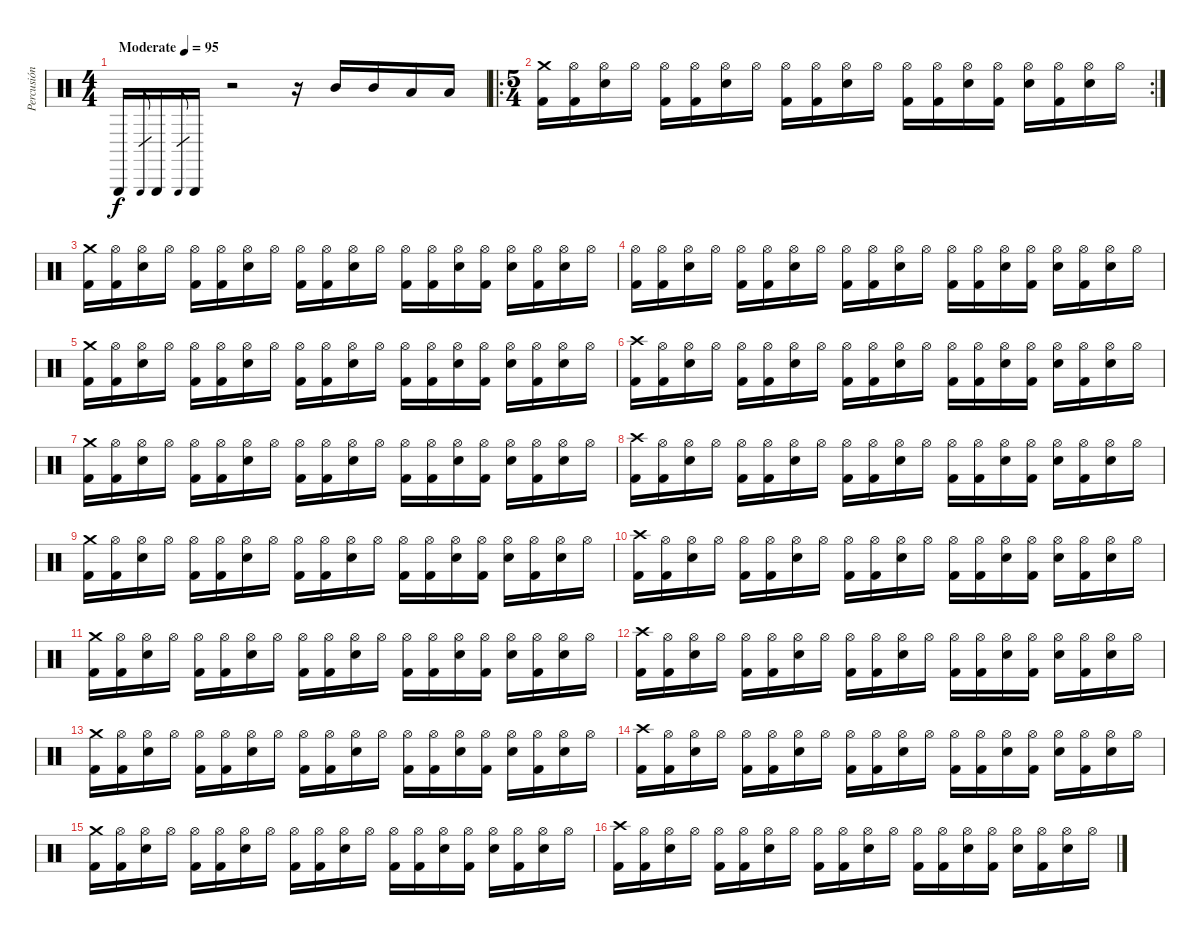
\track ("Percusión" "Percusión") {instrument percussion}
\staff {score}
\articulation defaults
\ts (4 4)
\tempo (95 "Moderate")
\clef neutral
\ks c "Triangle (hit)".16{dy f} "Triangle (hit)".8{gr} "Triangle (hit)".16 "Triangle (hit)".8{gr} "Triangle (hit)".16
r.2 r.16 "Mid Tom (hit)".16 "Mid Tom (hit)".16 "Low Tom (hit)".16 "Low Tom (hit)".16 |
\ro
\rc 2
\ts (5 4)
("Crash medium (hit)" "Kick (hit) 2").16 ("Hi-Hat (open)" "Kick (hit) 2").16 ("Hi-Hat (open)" "Electric Snare (hit)").16 "Hi-Hat (open)".16 ("Hi-Hat (open)" "Kick (hit) 2").16 ("Hi-Hat (open)" "Kick (hit) 2").16 ("Hi-Hat (open)" "Electric Snare (hit)").16 "Hi-Hat (open)".16 ("Hi-Hat (open)" "Kick (hit) 2").16 ("Hi-Hat (open)" "Kick (hit) 2").16 ("Hi-Hat (open)" "Electric Snare (hit)").16 "Hi-Hat (open)".16 ("Hi-Hat (open)" "Kick (hit) 2").16 ("Hi-Hat (open)" "Kick (hit) 2").16 ("Hi-Hat (open)" "Electric Snare (hit)").16 ("Hi-Hat (open)" "Kick (hit) 2").16 ("Hi-Hat (open)" "Electric Snare (hit)").16 ("Hi-Hat (open)" "Kick (hit) 2").16 ("Hi-Hat (open)" "Electric Snare (hit)").16 "Hi-Hat (open)".16 |
("Crash medium (hit)" "Kick (hit) 2").16 ("Hi-Hat (open)" "Kick (hit) 2").16 ("Hi-Hat (open)" "Electric Snare (hit)").16 "Hi-Hat (open)".16 ("Hi-Hat (open)" "Kick (hit) 2").16 ("Hi-Hat (open)" "Kick (hit) 2").16 ("Hi-Hat (open)" "Electric Snare (hit)").16 "Hi-Hat (open)".16 ("Hi-Hat (open)" "Kick (hit) 2").16 ("Hi-Hat (open)" "Kick (hit) 2").16 ("Hi-Hat (open)" "Electric Snare (hit)").16 "Hi-Hat (open)".16 ("Hi-Hat (open)" "Kick (hit) 2").16 ("Hi-Hat (open)" "Kick (hit) 2").16 ("Hi-Hat (open)" "Electric Snare (hit)").16 ("Hi-Hat (open)" "Kick (hit) 2").16 ("Hi-Hat (open)" "Electric Snare (hit)").16 ("Hi-Hat (open)" "Kick (hit) 2").16 ("Hi-Hat (open)" "Electric Snare (hit)").16 "Hi-Hat (open)".16 |
("Hi-Hat (open)" "Kick (hit) 2").16 ("Hi-Hat (open)" "Kick (hit) 2").16 ("Hi-Hat (open)" "Electric Snare (hit)").16 "Hi-Hat (open)".16 ("Hi-Hat (open)" "Kick (hit) 2").16 ("Hi-Hat (open)" "Kick (hit) 2").16 ("Hi-Hat (open)" "Electric Snare (hit)").16 "Hi-Hat (open)".16 ("Hi-Hat (open)" "Kick (hit) 2").16 ("Hi-Hat (open)" "Kick (hit) 2").16 ("Hi-Hat (open)" "Electric Snare (hit)").16 "Hi-Hat (open)".16 ("Hi-Hat (open)" "Kick (hit) 2").16 ("Hi-Hat (open)" "Kick (hit) 2").16 ("Hi-Hat (open)" "Electric Snare (hit)").16 ("Hi-Hat (open)" "Kick (hit) 2").16 ("Hi-Hat (open)" "Electric Snare (hit)").16 ("Hi-Hat (open)" "Kick (hit) 2").16 ("Hi-Hat (open)" "Electric Snare (hit)").16 "Hi-Hat (open)".16 |
("Crash medium (hit)" "Kick (hit) 2").16 ("Hi-Hat (open)" "Kick (hit) 2").16 ("Hi-Hat (open)" "Electric Snare (hit)").16 "Hi-Hat (open)".16 ("Hi-Hat (open)" "Kick (hit) 2").16 ("Hi-Hat (open)" "Kick (hit) 2").16 ("Hi-Hat (open)" "Electric Snare (hit)").16 "Hi-Hat (open)".16 ("Hi-Hat (open)" "Kick (hit) 2").16 ("Hi-Hat (open)" "Kick (hit) 2").16 ("Hi-Hat (open)" "Electric Snare (hit)").16 "Hi-Hat (open)".16 ("Hi-Hat (open)" "Kick (hit) 2").16 ("Hi-Hat (open)" "Kick (hit) 2").16 ("Hi-Hat (open)" "Electric Snare (hit)").16 ("Hi-Hat (open)" "Kick (hit) 2").16 ("Hi-Hat (open)" "Electric Snare (hit)").16 ("Hi-Hat (open)" "Kick (hit) 2").16 ("Hi-Hat (open)" "Electric Snare (hit)").16 "Hi-Hat (open)".16 |
("Crash high (hit)" "Kick (hit) 2").16 ("Hi-Hat (open)" "Kick (hit) 2").16 ("Hi-Hat (open)" "Electric Snare (hit)").16 "Hi-Hat (open)".16 ("Hi-Hat (open)" "Kick (hit) 2").16 ("Hi-Hat (open)" "Kick (hit) 2").16 ("Hi-Hat (open)" "Electric Snare (hit)").16 "Hi-Hat (open)".16 ("Hi-Hat (open)" "Kick (hit) 2").16 ("Hi-Hat (open)" "Kick (hit) 2").16 ("Hi-Hat (open)" "Electric Snare (hit)").16 "Hi-Hat (open)".16 ("Hi-Hat (open)" "Kick (hit) 2").16 ("Hi-Hat (open)" "Kick (hit) 2").16 ("Hi-Hat (open)" "Electric Snare (hit)").16 ("Hi-Hat (open)" "Kick (hit) 2").16 ("Hi-Hat (open)" "Electric Snare (hit)").16 ("Hi-Hat (open)" "Kick (hit) 2").16 ("Hi-Hat (open)" "Electric Snare (hit)").16 "Hi-Hat (open)".16 |
("Crash medium (hit)" "Kick (hit) 2").16 ("Hi-Hat (open)" "Kick (hit) 2").16 ("Hi-Hat (open)" "Electric Snare (hit)").16 "Hi-Hat (open)".16 ("Hi-Hat (open)" "Kick (hit) 2").16 ("Hi-Hat (open)" "Kick (hit) 2").16 ("Hi-Hat (open)" "Electric Snare (hit)").16 "Hi-Hat (open)".16 ("Hi-Hat (open)" "Kick (hit) 2").16 ("Hi-Hat (open)" "Kick (hit) 2").16 ("Hi-Hat (open)" "Electric Snare (hit)").16 "Hi-Hat (open)".16 ("Hi-Hat (open)" "Kick (hit) 2").16 ("Hi-Hat (open)" "Kick (hit) 2").16 ("Hi-Hat (open)" "Electric Snare (hit)").16 ("Hi-Hat (open)" "Kick (hit) 2").16 ("Hi-Hat (open)" "Electric Snare (hit)").16 ("Hi-Hat (open)" "Kick (hit) 2").16 ("Hi-Hat (open)" "Electric Snare (hit)").16 "Hi-Hat (open)".16 |
("Crash high (hit)" "Kick (hit) 2").16 ("Hi-Hat (open)" "Kick (hit) 2").16 ("Hi-Hat (open)" "Electric Snare (hit)").16 "Hi-Hat (open)".16 ("Hi-Hat (open)" "Kick (hit) 2").16 ("Hi-Hat (open)" "Kick (hit) 2").16 ("Hi-Hat (open)" "Electric Snare (hit)").16 "Hi-Hat (open)".16 ("Hi-Hat (open)" "Kick (hit) 2").16 ("Hi-Hat (open)" "Kick (hit) 2").16 ("Hi-Hat (open)" "Electric Snare (hit)").16 "Hi-Hat (open)".16 ("Hi-Hat (open)" "Kick (hit) 2").16 ("Hi-Hat (open)" "Kick (hit) 2").16 ("Hi-Hat (open)" "Electric Snare (hit)").16 ("Hi-Hat (open)" "Kick (hit) 2").16 ("Hi-Hat (open)" "Electric Snare (hit)").16 ("Hi-Hat (open)" "Kick (hit) 2").16 ("Hi-Hat (open)" "Electric Snare (hit)").16 "Hi-Hat (open)".16 |
("Crash medium (hit)" "Kick (hit) 2").16 ("Hi-Hat (open)" "Kick (hit) 2").16 ("Hi-Hat (open)" "Electric Snare (hit)").16 "Hi-Hat (open)".16 ("Hi-Hat (open)" "Kick (hit) 2").16 ("Hi-Hat (open)" "Kick (hit) 2").16 ("Hi-Hat (open)" "Electric Snare (hit)").16 "Hi-Hat (open)".16 ("Hi-Hat (open)" "Kick (hit) 2").16 ("Hi-Hat (open)" "Kick (hit) 2").16 ("Hi-Hat (open)" "Electric Snare (hit)").16 "Hi-Hat (open)".16 ("Hi-Hat (open)" "Kick (hit) 2").16 ("Hi-Hat (open)" "Kick (hit) 2").16 ("Hi-Hat (open)" "Electric Snare (hit)").16 ("Hi-Hat (open)" "Kick (hit) 2").16 ("Hi-Hat (open)" "Electric Snare (hit)").16 ("Hi-Hat (open)" "Kick (hit) 2").16 ("Hi-Hat (open)" "Electric Snare (hit)").16 "Hi-Hat (open)".16 |
("Crash high (hit)" "Kick (hit) 2").16 ("Hi-Hat (open)" "Kick (hit) 2").16 ("Hi-Hat (open)" "Electric Snare (hit)").16 "Hi-Hat (open)".16 ("Hi-Hat (open)" "Kick (hit) 2").16 ("Hi-Hat (open)" "Kick (hit) 2").16 ("Hi-Hat (open)" "Electric Snare (hit)").16 "Hi-Hat (open)".16 ("Hi-Hat (open)" "Kick (hit) 2").16 ("Hi-Hat (open)" "Kick (hit) 2").16 ("Hi-Hat (open)" "Electric Snare (hit)").16 "Hi-Hat (open)".16 ("Hi-Hat (open)" "Kick (hit) 2").16 ("Hi-Hat (open)" "Kick (hit) 2").16 ("Hi-Hat (open)" "Electric Snare (hit)").16 ("Hi-Hat (open)" "Kick (hit) 2").16 ("Hi-Hat (open)" "Electric Snare (hit)").16 ("Hi-Hat (open)" "Kick (hit) 2").16 ("Hi-Hat (open)" "Electric Snare (hit)").16 "Hi-Hat (open)".16 |
("Crash medium (hit)" "Kick (hit) 2").16 ("Hi-Hat (open)" "Kick (hit) 2").16 ("Hi-Hat (open)" "Electric Snare (hit)").16 "Hi-Hat (open)".16 ("Hi-Hat (open)" "Kick (hit) 2").16 ("Hi-Hat (open)" "Kick (hit) 2").16 ("Hi-Hat (open)" "Electric Snare (hit)").16 "Hi-Hat (open)".16 ("Hi-Hat (open)" "Kick (hit) 2").16 ("Hi-Hat (open)" "Kick (hit) 2").16 ("Hi-Hat (open)" "Electric Snare (hit)").16 "Hi-Hat (open)".16 ("Hi-Hat (open)" "Kick (hit) 2").16 ("Hi-Hat (open)" "Kick (hit) 2").16 ("Hi-Hat (open)" "Electric Snare (hit)").16 ("Hi-Hat (open)" "Kick (hit) 2").16 ("Hi-Hat (open)" "Electric Snare (hit)").16 ("Hi-Hat (open)" "Kick (hit) 2").16 ("Hi-Hat (open)" "Electric Snare (hit)").16 "Hi-Hat (open)".16 |
("Crash high (hit)" "Kick (hit) 2").16 ("Hi-Hat (open)" "Kick (hit) 2").16 ("Hi-Hat (open)" "Electric Snare (hit)").16 "Hi-Hat (open)".16 ("Hi-Hat (open)" "Kick (hit) 2").16 ("Hi-Hat (open)" "Kick (hit) 2").16 ("Hi-Hat (open)" "Electric Snare (hit)").16 "Hi-Hat (open)".16 ("Hi-Hat (open)" "Kick (hit) 2").16 ("Hi-Hat (open)" "Kick (hit) 2").16 ("Hi-Hat (open)" "Electric Snare (hit)").16 "Hi-Hat (open)".16 ("Hi-Hat (open)" "Kick (hit) 2").16 ("Hi-Hat (open)" "Kick (hit) 2").16 ("Hi-Hat (open)" "Electric Snare (hit)").16 ("Hi-Hat (open)" "Kick (hit) 2").16 ("Hi-Hat (open)" "Electric Snare (hit)").16 ("Hi-Hat (open)" "Kick (hit) 2").16 ("Hi-Hat (open)" "Electric Snare (hit)").16 "Hi-Hat (open)".16 |
("Crash medium (hit)" "Kick (hit) 2").16 ("Hi-Hat (open)" "Kick (hit) 2").16 ("Hi-Hat (open)" "Electric Snare (hit)").16 "Hi-Hat (open)".16 ("Hi-Hat (open)" "Kick (hit) 2").16 ("Hi-Hat (open)" "Kick (hit) 2").16 ("Hi-Hat (open)" "Electric Snare (hit)").16 "Hi-Hat (open)".16 ("Hi-Hat (open)" "Kick (hit) 2").16 ("Hi-Hat (open)" "Kick (hit) 2").16 ("Hi-Hat (open)" "Electric Snare (hit)").16 "Hi-Hat (open)".16 ("Hi-Hat (open)" "Kick (hit) 2").16 ("Hi-Hat (open)" "Kick (hit) 2").16 ("Hi-Hat (open)" "Electric Snare (hit)").16 ("Hi-Hat (open)" "Kick (hit) 2").16 ("Hi-Hat (open)" "Electric Snare (hit)").16 ("Hi-Hat (open)" "Kick (hit) 2").16 ("Hi-Hat (open)" "Electric Snare (hit)").16 "Hi-Hat (open)".16 |
("Crash high (hit)" "Kick (hit) 2").16 ("Hi-Hat (open)" "Kick (hit) 2").16 ("Hi-Hat (open)" "Electric Snare (hit)").16 "Hi-Hat (open)".16 ("Hi-Hat (open)" "Kick (hit) 2").16 ("Hi-Hat (open)" "Kick (hit) 2").16 ("Hi-Hat (open)" "Electric Snare (hit)").16 "Hi-Hat (open)".16 ("Hi-Hat (open)" "Kick (hit) 2").16 ("Hi-Hat (open)" "Kick (hit) 2").16 ("Hi-Hat (open)" "Electric Snare (hit)").16 "Hi-Hat (open)".16 ("Hi-Hat (open)" "Kick (hit) 2").16 ("Hi-Hat (open)" "Kick (hit) 2").16 ("Hi-Hat (open)" "Electric Snare (hit)").16 ("Hi-Hat (open)" "Kick (hit) 2").16 ("Hi-Hat (open)" "Electric Snare (hit)").16 ("Hi-Hat (open)" "Kick (hit) 2").16 ("Hi-Hat (open)" "Electric Snare (hit)").16 "Hi-Hat (open)".16 |
("Crash medium (hit)" "Kick (hit) 2").16 ("Hi-Hat (open)" "Kick (hit) 2").16 ("Hi-Hat (open)" "Electric Snare (hit)").16 "Hi-Hat (open)".16 ("Hi-Hat (open)" "Kick (hit) 2").16 ("Hi-Hat (open)" "Kick (hit) 2").16 ("Hi-Hat (open)" "Electric Snare (hit)").16 "Hi-Hat (open)".16 ("Hi-Hat (open)" "Kick (hit) 2").16 ("Hi-Hat (open)" "Kick (hit) 2").16 ("Hi-Hat (open)" "Electric Snare (hit)").16 "Hi-Hat (open)".16 ("Hi-Hat (open)" "Kick (hit) 2").16 ("Hi-Hat (open)" "Kick (hit) 2").16 ("Hi-Hat (open)" "Electric Snare (hit)").16 ("Hi-Hat (open)" "Kick (hit) 2").16 ("Hi-Hat (open)" "Electric Snare (hit)").16 ("Hi-Hat (open)" "Kick (hit) 2").16 ("Hi-Hat (open)" "Electric Snare (hit)").16 "Hi-Hat (open)".16 |
("Crash high (hit)" "Kick (hit) 2").16 ("Hi-Hat (open)" "Kick (hit) 2").16 ("Hi-Hat (open)" "Electric Snare (hit)").16 "Hi-Hat (open)".16 ("Hi-Hat (open)" "Kick (hit) 2").16 ("Hi-Hat (open)" "Kick (hit) 2").16 ("Hi-Hat (open)" "Electric Snare (hit)").16 "Hi-Hat (open)".16 ("Hi-Hat (open)" "Kick (hit) 2").16 ("Hi-Hat (open)" "Kick (hit) 2").16 ("Hi-Hat (open)" "Electric Snare (hit)").16 "Hi-Hat (open)".16 ("Hi-Hat (open)" "Kick (hit) 2").16 ("Hi-Hat (open)" "Kick (hit) 2").16 ("Hi-Hat (open)" "Electric Snare (hit)").16 ("Hi-Hat (open)" "Kick (hit) 2").16 ("Hi-Hat (open)" "Electric Snare (hit)").16 ("Hi-Hat (open)" "Kick (hit) 2").16 ("Hi-Hat (open)" "Electric Snare (hit)").16 "Hi-Hat (open)".16
